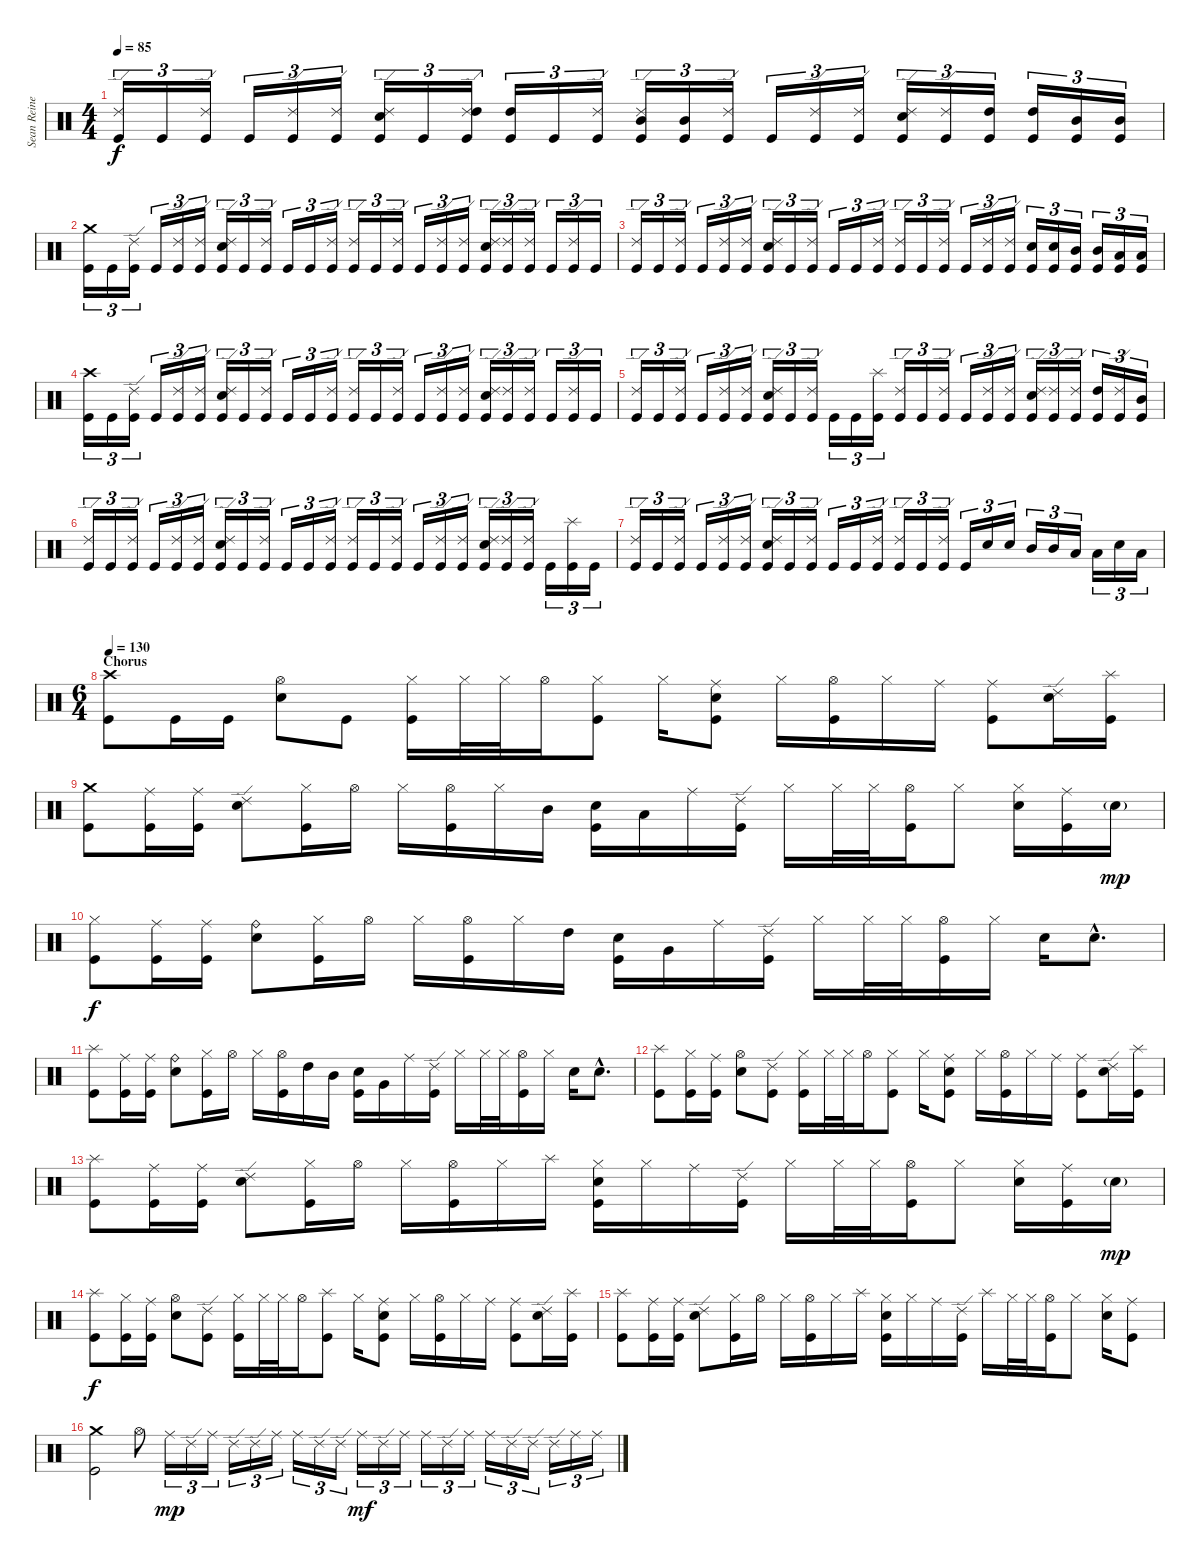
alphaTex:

\track ("Sean Reinert " "Sean Reine") {instrument percussion}
\staff {score}
\articulation defaults
\ts (4 4)
\tempo 85
\clef neutral
\ks c
("Ride (edge) 2" "Kick (hit)").16{tu (3 2) dy f} "Kick (hit)".16{tu (3 2)} ("Ride (edge) 2" "Kick (hit)").16{tu (3 2)} "Kick (hit)".16{tu (3 2)} ("Ride (edge) 2" "Kick (hit)").16{tu (3 2)} ("Ride (edge) 2" "Kick (hit)").16{tu (3 2)} ("Ride (edge) 2" "Electric Snare (hit)" "Kick (hit)").16{tu (3 2)} "Kick (hit)".16{tu (3 2)} ("Ride (edge) 2" "High Tom (hit)" "Kick (hit)").16{tu (3 2)} ("High Tom (hit)" "Kick (hit)").16{tu (3 2)} "Kick (hit)".16{tu (3 2)} ("Ride (edge) 2" "Kick (hit)").16{tu (3 2)} ("Ride (edge) 2" "Mid Tom (hit)" "Kick (hit)").16{tu (3 2)} ("Mid Tom (hit)" "Kick (hit)").16{tu (3 2)} ("Ride (edge) 2" "Kick (hit)").16{tu (3 2)} "Kick (hit)".16{tu (3 2)} ("Ride (edge) 2" "Kick (hit)").16{tu (3 2)} ("Ride (edge) 2" "Kick (hit)").16{tu (3 2)} ("Ride (edge) 2" "Electric Snare (hit)" "Kick (hit)").16{tu (3 2)} ("Ride (edge) 2" "Kick (hit)").16{tu (3 2)} ("High Tom (hit)" "Kick (hit)").16{tu (3 2)} ("High Tom (hit)" "Kick (hit)").16{tu (3 2)} ("Mid Tom (hit)" "Kick (hit)").16{tu (3 2)} ("Mid Tom (hit)" "Kick (hit)").16{tu (3 2)} |
("Crash medium (hit)" "Kick (hit)").16{tu (3 2)} "Kick (hit)".16{tu (3 2)} ("Ride (edge) 2" "Kick (hit)").16{tu (3 2)} "Kick (hit)".16{tu (3 2)} ("Ride (edge) 2" "Kick (hit)").16{tu (3 2)} ("Ride (edge) 2" "Kick (hit)").16{tu (3 2)} ("Ride (edge) 2" "Electric Snare (hit)" "Kick (hit)").16{tu (3 2)} "Kick (hit)".16{tu (3 2)} ("Ride (edge) 2" "Kick (hit)").16{tu (3 2)} "Kick (hit)".16{tu (3 2)} "Kick (hit)".16{tu (3 2)} ("Ride (edge) 2" "Kick (hit)").16{tu (3 2)} ("Ride (edge) 2" "Kick (hit)").16{tu (3 2)} "Kick (hit)".16{tu (3 2)} ("Ride (edge) 2" "Kick (hit)").16{tu (3 2)} "Kick (hit)".16{tu (3 2)} ("Ride (edge) 2" "Kick (hit)").16{tu (3 2)} ("Ride (edge) 2" "Kick (hit)").16{tu (3 2)} ("Ride (edge) 2" "Electric Snare (hit)" "Kick (hit)").16{tu (3 2)} ("Ride (edge) 2" "Kick (hit)").16{tu (3 2)} ("Ride (edge) 2" "Kick (hit)").16{tu (3 2)} "Kick (hit)".16{tu (3 2)} ("Ride (edge) 2" "Kick (hit)").16{tu (3 2)} "Kick (hit)".16{tu (3 2)} |
("Ride (edge) 2" "Kick (hit)").16{tu (3 2)} "Kick (hit)".16{tu (3 2)} ("Ride (edge) 2" "Kick (hit)").16{tu (3 2)} "Kick (hit)".16{tu (3 2)} ("Ride (edge) 2" "Kick (hit)").16{tu (3 2)} ("Ride (edge) 2" "Kick (hit)").16{tu (3 2)} ("Ride (edge) 2" "Electric Snare (hit)" "Kick (hit)").16{tu (3 2)} "Kick (hit)".16{tu (3 2)} ("Ride (edge) 2" "Kick (hit)").16{tu (3 2)} "Kick (hit)".16{tu (3 2)} "Kick (hit)".16{tu (3 2)} ("Ride (edge) 2" "Kick (hit)").16{tu (3 2)} ("Ride (edge) 2" "Kick (hit)").16{tu (3 2)} "Kick (hit)".16{tu (3 2)} ("Ride (edge) 2" "Kick (hit)").16{tu (3 2)} "Kick (hit)".16{tu (3 2)} ("Ride (edge) 2" "Kick (hit)").16{tu (3 2)} ("Ride (edge) 2" "Kick (hit)").16{tu (3 2)} ("Electric Snare (hit)" "Kick (hit)").16{tu (3 2)} ("Electric Snare (hit)" "Kick (hit)").16{tu (3 2)} ("Mid Tom (hit)" "Kick (hit)").16{tu (3 2)} ("Mid Tom (hit)" "Kick (hit)").16{tu (3 2)} ("Low Tom (hit)" "Kick (hit)").16{tu (3 2)} ("Low Tom (hit)" "Kick (hit)").16{tu (3 2)} |
("Crash high (hit)" "Kick (hit)").16{tu (3 2)} "Kick (hit)".16{tu (3 2)} ("Ride (edge) 2" "Kick (hit)").16{tu (3 2)} "Kick (hit)".16{tu (3 2)} ("Ride (edge) 2" "Kick (hit)").16{tu (3 2)} ("Ride (edge) 2" "Kick (hit)").16{tu (3 2)} ("Ride (edge) 2" "Electric Snare (hit)" "Kick (hit)").16{tu (3 2)} "Kick (hit)".16{tu (3 2)} ("Ride (edge) 2" "Kick (hit)").16{tu (3 2)} "Kick (hit)".16{tu (3 2)} "Kick (hit)".16{tu (3 2)} ("Ride (edge) 2" "Kick (hit)").16{tu (3 2)} ("Ride (edge) 2" "Kick (hit)").16{tu (3 2)} "Kick (hit)".16{tu (3 2)} ("Ride (edge) 2" "Kick (hit)").16{tu (3 2)} "Kick (hit)".16{tu (3 2)} ("Ride (edge) 2" "Kick (hit)").16{tu (3 2)} ("Ride (edge) 2" "Kick (hit)").16{tu (3 2)} ("Ride (edge) 2" "Electric Snare (hit)" "Kick (hit)").16{tu (3 2)} ("Ride (edge) 2" "Kick (hit)").16{tu (3 2)} ("Ride (edge) 2" "Kick (hit)").16{tu (3 2)} "Kick (hit)".16{tu (3 2)} ("Ride (edge) 2" "Kick (hit)").16{tu (3 2)} "Kick (hit)".16{tu (3 2)} |
("Ride (edge) 2" "Kick (hit)").16{tu (3 2)} "Kick (hit)".16{tu (3 2)} ("Ride (edge) 2" "Kick (hit)").16{tu (3 2)} "Kick (hit)".16{tu (3 2)} ("Ride (edge) 2" "Kick (hit)").16{tu (3 2)} ("Ride (edge) 2" "Kick (hit)").16{tu (3 2)} ("Ride (edge) 2" "Electric Snare (hit)" "Kick (hit)").16{tu (3 2)} "Kick (hit)".16{tu (3 2)} ("Ride (edge) 2" "Kick (hit)").16{tu (3 2)} "Kick (hit)".16{tu (3 2)} "Kick (hit)".16{tu (3 2)} ("Splash (hit)" "Kick (hit)").16{tu (3 2)} ("Ride (edge) 2" "Kick (hit)").16{tu (3 2)} "Kick (hit)".16{tu (3 2)} ("Ride (edge) 2" "Kick (hit)").16{tu (3 2)} "Kick (hit)".16{tu (3 2)} ("Ride (edge) 2" "Kick (hit)").16{tu (3 2)} ("Ride (edge) 2" "Kick (hit)").16{tu (3 2)} ("Ride (edge) 2" "Electric Snare (hit)" "Kick (hit)").16{tu (3 2)} ("Ride (edge) 2" "Kick (hit)").16{tu (3 2)} ("Ride (edge) 2" "Kick (hit)").16{tu (3 2)} ("High Tom (hit)" "Kick (hit)").16{tu (3 2)} ("Ride (edge) 2" "Kick (hit)").16{tu (3 2)} ("Mid Tom (hit)" "Kick (hit)").16{tu (3 2)} |
("Ride (edge) 2" "Kick (hit)").16{tu (3 2)} "Kick (hit)".16{tu (3 2)} ("Ride (edge) 2" "Kick (hit)").16{tu (3 2)} "Kick (hit)".16{tu (3 2)} ("Ride (edge) 2" "Kick (hit)").16{tu (3 2)} ("Ride (edge) 2" "Kick (hit)").16{tu (3 2)} ("Ride (edge) 2" "Electric Snare (hit)" "Kick (hit)").16{tu (3 2)} "Kick (hit)".16{tu (3 2)} ("Ride (edge) 2" "Kick (hit)").16{tu (3 2)} "Kick (hit)".16{tu (3 2)} "Kick (hit)".16{tu (3 2)} ("Ride (edge) 2" "Kick (hit)").16{tu (3 2)} ("Ride (edge) 2" "Kick (hit)").16{tu (3 2)} "Kick (hit)".16{tu (3 2)} ("Ride (edge) 2" "Kick (hit)").16{tu (3 2)} "Kick (hit)".16{tu (3 2)} ("Ride (edge) 2" "Kick (hit)").16{tu (3 2)} ("Ride (edge) 2" "Kick (hit)").16{tu (3 2)} ("Ride (edge) 2" "Electric Snare (hit)" "Kick (hit)").16{tu (3 2)} ("Ride (edge) 2" "Kick (hit)").16{tu (3 2)} ("Ride (edge) 2" "Kick (hit)").16{tu (3 2)} "Kick (hit)".16{tu (3 2)} ("Splash (hit)" "Kick (hit)").16{tu (3 2)} "Kick (hit)".16{tu (3 2)} |
("Ride (edge) 2" "Kick (hit)").16{tu (3 2)} "Kick (hit)".16{tu (3 2)} ("Ride (edge) 2" "Kick (hit)").16{tu (3 2)} "Kick (hit)".16{tu (3 2)} ("Ride (edge) 2" "Kick (hit)").16{tu (3 2)} ("Ride (edge) 2" "Kick (hit)").16{tu (3 2)} ("Ride (edge) 2" "Electric Snare (hit)" "Kick (hit)").16{tu (3 2)} "Kick (hit)".16{tu (3 2)} ("Ride (edge) 2" "Kick (hit)").16{tu (3 2)} "Kick (hit)".16{tu (3 2)} "Kick (hit)".16{tu (3 2)} ("Ride (edge) 2" "Kick (hit)").16{tu (3 2)} ("Ride (edge) 2" "Kick (hit)").16{tu (3 2)} "Kick (hit)".16{tu (3 2)} ("Ride (edge) 2" "Kick (hit)").16{tu (3 2)} "Kick (hit)".16{tu (3 2)} "Electric Snare (hit)".16{tu (3 2)} "Electric Snare (hit)".16{tu (3 2)} "Mid Tom (hit)".16{tu (3 2)} "Mid Tom (hit)".16{tu (3 2)} "Low Tom (hit)".16{tu (3 2)} "Low Tom (hit)".16{tu (3 2)} "Electric Snare (hit)".16{tu (3 2)} "Low Tom (hit)".16{tu (3 2)} |
\ts (6 4)
\section ("" "Chorus")
\tempo 130
("Crash high (hit)" "Kick (hit)").8 "Kick (hit)".16 "Kick (hit)".16 ("Hi-Hat (open)" "Electric Snare (hit)").8 "Kick (hit)".8 ("Hi-Hat (closed)" "Kick (hit)").16 "Hi-Hat (closed)".32 "Hi-Hat (closed)".32 "Hi-Hat (open)".16 ("Hi-Hat (closed)" "Kick (hit)").8 "Hi-Hat (closed)".16 ("Ride (middle)" "Electric Snare (hit)" "Kick (hit)").8 "Hi-Hat (closed)".16 ("Hi-Hat (open)" "Kick (hit)").16 "Hi-Hat (closed)".16 "Ride (middle)".16 ("Ride (middle)" "Kick (hit)").8 ("Ride (edge) 2" "Electric Snare (hit)").16 ("Splash (hit)" "Kick (hit)").16 |
("Crash medium (hit)" "Kick (hit)").8 ("Ride (middle)" "Kick (hit)").16 ("Ride (middle)" "Kick (hit)").16 ("Ride (edge) 2" "Electric Snare (hit)").8 ("Hi-Hat (closed)" "Kick (hit)").16 "Hi-Hat (open)".16 "Hi-Hat (closed)".16 ("Hi-Hat (open)" "Kick (hit)").16 "Hi-Hat (closed)".16 "Mid Tom (hit)".16 ("Electric Snare (hit)" "Kick (hit)").16 "Low Tom (hit)".16 "Ride (middle)".16 ("Ride (edge) 2" "Kick (hit)").16 "Hi-Hat (closed)".16 "Hi-Hat (closed)".32 "Hi-Hat (closed)".32 ("Hi-Hat (open)" "Kick (hit)").16 "Hi-Hat (closed)".8 ("Hi-Hat (closed)" "Electric Snare (hit)").16 ("Ride (middle)" "Kick (hit)").16 "Electric Snare (hit)"{g}.16{dy mp} |
("Hi-Hat (closed)" "Kick (hit)").8{dy f} ("Ride (middle)" "Kick (hit)").16 ("Ride (middle)" "Kick (hit)").16 ("Ride (bell)" "Electric Snare (hit)").8 ("Hi-Hat (closed)" "Kick (hit)").16 "Hi-Hat (open)".16 "Hi-Hat (closed)".16 ("Hi-Hat (open)" "Kick (hit)").16 "Hi-Hat (closed)".16 "High Tom (hit)".16 ("Electric Snare (hit)" "Kick (hit)").16 "Very Low Tom (hit)".16 "Ride (middle)".16 ("Ride (edge) 2" "Kick (hit)").16 "Hi-Hat (closed)".16 "Hi-Hat (closed)".32 "Hi-Hat (closed)".32 ("Hi-Hat (open)" "Kick (hit)").16 "Hi-Hat (closed)".16 "Electric Snare (hit)".16 "Electric Snare (hit)"{hac}.8{d} |
("Splash (hit)" "Kick (hit)").8 ("Ride (middle)" "Kick (hit)").16 ("Ride (middle)" "Kick (hit)").16 ("Ride (bell)" "Electric Snare (hit)").8 ("Hi-Hat (closed)" "Kick (hit)").16 "Hi-Hat (open)".16 "Hi-Hat (closed)".16 ("Hi-Hat (open)" "Kick (hit)").16 "High Tom (hit)".16 "Mid Tom (hit)".16 ("Electric Snare (hit)" "Kick (hit)").16 "Very Low Tom (hit)".16 "Ride (middle)".16 ("Ride (edge) 2" "Kick (hit)").16 "Hi-Hat (closed)".16 "Hi-Hat (closed)".32 "Hi-Hat (closed)".32 ("Hi-Hat (open)" "Kick (hit)").16 "Hi-Hat (closed)".16 "Electric Snare (hit)".16 "Electric Snare (hit)"{hac}.8{d} |
("Splash (hit)" "Kick (hit)").8 ("Hi-Hat (closed)" "Kick (hit)").16 ("Ride (middle)" "Kick (hit)").16 ("Hi-Hat (open)" "Electric Snare (hit)").8 ("Ride (edge) 2" "Kick (hit)").8 ("Hi-Hat (closed)" "Kick (hit)").16 "Hi-Hat (closed)".32 "Hi-Hat (closed)".32 "Hi-Hat (open)".16 ("Hi-Hat (closed)" "Kick (hit)").8 "Hi-Hat (closed)".16 ("Ride (middle)" "Electric Snare (hit)" "Kick (hit)").8 "Hi-Hat (closed)".16 ("Hi-Hat (open)" "Kick (hit)").16 "Hi-Hat (closed)".16 "Ride (middle)".16 ("Ride (middle)" "Kick (hit)").8 ("Ride (edge) 2" "Electric Snare (hit)").16 ("Splash (hit)" "Kick (hit)").16 |
("Splash (hit)" "Kick (hit)").8 ("Ride (middle)" "Kick (hit)").16 ("Ride (middle)" "Kick (hit)").16 ("Ride (edge) 2" "Electric Snare (hit)").8 ("Hi-Hat (closed)" "Kick (hit)").16 "Hi-Hat (open)".16 "Hi-Hat (closed)".16 ("Hi-Hat (open)" "Kick (hit)").16 "Hi-Hat (closed)".16 "Splash (hit)".16 ("Hi-Hat (closed)" "Electric Snare (hit)" "Kick (hit)").16 "Hi-Hat (closed)".16 "Ride (middle)".16 ("Ride (edge) 2" "Kick (hit)").16 "Hi-Hat (closed)".16 "Hi-Hat (closed)".32 "Hi-Hat (closed)".32 ("Hi-Hat (open)" "Kick (hit)").16 "Hi-Hat (closed)".8 ("Hi-Hat (closed)" "Electric Snare (hit)").16 ("Ride (middle)" "Kick (hit)").16 "Electric Snare (hit)"{g}.16{dy mp} |
("Splash (hit)" "Kick (hit)").8{dy f} ("Hi-Hat (closed)" "Kick (hit)").16 ("Ride (middle)" "Kick (hit)").16 ("Hi-Hat (open)" "Electric Snare (hit)").8 ("Ride (edge) 2" "Kick (hit)").8 ("Hi-Hat (closed)" "Kick (hit)").16 "Hi-Hat (closed)".32 "Hi-Hat (closed)".32 "Hi-Hat (open)".16 ("Splash (hit)" "Kick (hit)").8 "Hi-Hat (closed)".16 ("Ride (middle)" "Electric Snare (hit)" "Kick (hit)").8 "Hi-Hat (closed)".16 ("Hi-Hat (open)" "Kick (hit)").16 "Hi-Hat (closed)".16 "Ride (middle)".16 ("Ride (middle)" "Kick (hit)").8 ("Ride (edge) 2" "Electric Snare (hit)").16 ("Splash (hit)" "Kick (hit)").16 |
("Splash (hit)" "Kick (hit)").8 ("Ride (middle)" "Kick (hit)").16 ("Ride (middle)" "Kick (hit)").16 ("Ride (edge) 2" "Electric Snare (hit)").8 ("Hi-Hat (closed)" "Kick (hit)").16 "Hi-Hat (open)".16 "Hi-Hat (closed)".16 ("Hi-Hat (open)" "Kick (hit)").16 "Hi-Hat (closed)".16 "Splash (hit)".16 ("Hi-Hat (closed)" "Electric Snare (hit)" "Kick (hit)").16 "Hi-Hat (closed)".16 "Ride (middle)".16 ("Ride (edge) 2" "Kick (hit)").16 "Splash (hit)".16 "Hi-Hat (closed)".32 "Hi-Hat (closed)".32 ("Hi-Hat (open)" "Kick (hit)").16 "Hi-Hat (closed)".8 ("Hi-Hat (closed)" "Electric Snare (hit)").16 ("Ride (middle)" "Kick (hit)").8 |
("Crash medium (hit)" "Kick (hit)").2 "Hi-Hat (open)".8{volume 0} "Ride (middle)".16{tu (3 2) dy mp} "Ride (edge) 2".16{tu (3 2)} "Ride (middle)".16{tu (3 2)} "Ride (edge) 2".16{tu (3 2)} "Ride (edge) 2".16{tu (3 2)} "Ride (middle)".16{tu (3 2)} "Ride (middle)".16{tu (3 2)} "Ride (edge) 2".16{tu (3 2)} "Ride (edge) 2".16{tu (3 2)} "Ride (middle)".16{tu (3 2) dy mf} "Ride (edge) 2".16{tu (3 2)} "Ride (middle)".16{tu (3 2)} "Ride (middle)".16{tu (3 2)} "Ride (edge) 2".16{tu (3 2)} "Ride (middle)".16{tu (3 2)} "Ride (middle)".16{tu (3 2)} "Ride (edge) 2".16{tu (3 2)} "Ride (edge) 2".16{tu (3 2)} "Ride (edge) 2".16{tu (3 2)} "Ride (middle)".16{tu (3 2)} "Ride (middle)".16{tu (3 2)}
